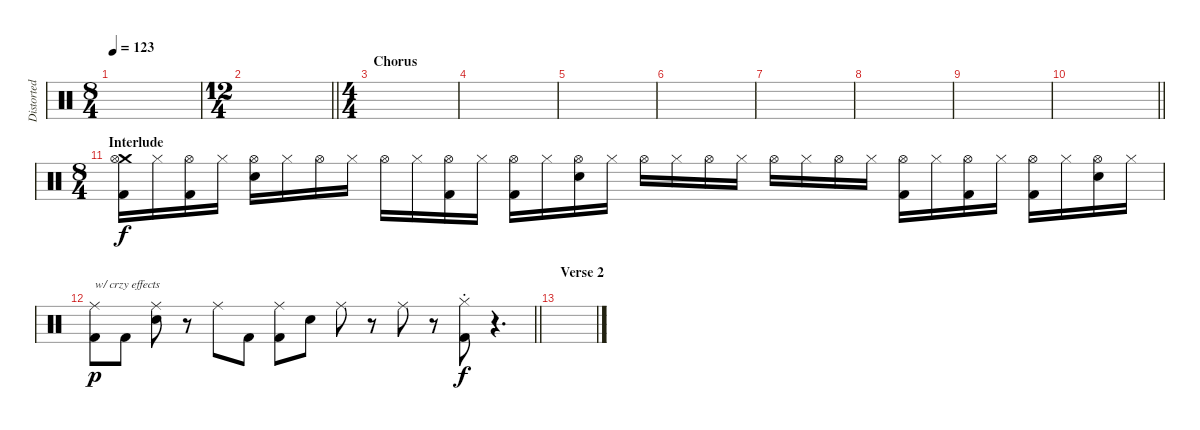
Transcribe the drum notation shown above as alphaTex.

\track ("Distorted Drums" "Distorted ") {instrument percussion}
\staff {score}
\articulation defaults
\ts (8 4)
\tempo 123
\clef neutral
\ks c
|
\ts (12 4)
\barLineRight lightlight
|
\ts (4 4)
\section ("" "Chorus")
|
|
|
|
|
|
|
\barLineRight lightlight
|
\ts (8 4)
\section ("" "Interlude")
("Crash medium (hit)" "Hi-Hat (open)" "Kick (hit) 2").16{dy f} "Hi-Hat (closed)".16 ("Hi-Hat (open)" "Kick (hit) 2").16 "Hi-Hat (closed)".16 ("Hi-Hat (open)" "Snare (hit) 2").16 "Hi-Hat (closed)".16 "Hi-Hat (open)".16 "Hi-Hat (closed)".16 "Hi-Hat (open)".16 "Hi-Hat (closed)".16 ("Hi-Hat (open)" "Kick (hit) 2").16 "Hi-Hat (closed)".16 ("Hi-Hat (open)" "Kick (hit) 2").16 "Hi-Hat (closed)".16 ("Hi-Hat (open)" "Snare (hit) 2").16 "Hi-Hat (closed)".16 "Hi-Hat (open)".16 "Hi-Hat (closed)".16 "Hi-Hat (open)".16 "Hi-Hat (closed)".16 "Hi-Hat (open)".16 "Hi-Hat (closed)".16 "Hi-Hat (open)".16 "Hi-Hat (closed)".16 ("Hi-Hat (open)" "Kick (hit) 2").16 "Hi-Hat (closed)".16 ("Hi-Hat (open)" "Kick (hit) 2").16 "Hi-Hat (closed)".16 ("Hi-Hat (open)" "Kick (hit) 2").16 "Hi-Hat (closed)".16 ("Hi-Hat (open)" "Snare (hit) 2").16 "Hi-Hat (closed)".16 |
\barLineRight lightlight
("Ride (middle)" "Kick (hit) 2").8{txt "w/ crzy effects" dy p} "Kick (hit) 2".8 ("Ride (middle)" "Snare (hit) 2").8 r.8 "Ride (middle)".8 "Kick (hit) 2".8 ("Ride (middle)" "Kick (hit) 2").8 "Snare (hit) 2".8 "Ride (middle)".8 r.8 "Ride (middle)".8 r.8 ("Hi-Hat (closed)"{st} "Kick (hit) 2").8{dy f} r.4{d} |
\section ("" "Verse 2")
